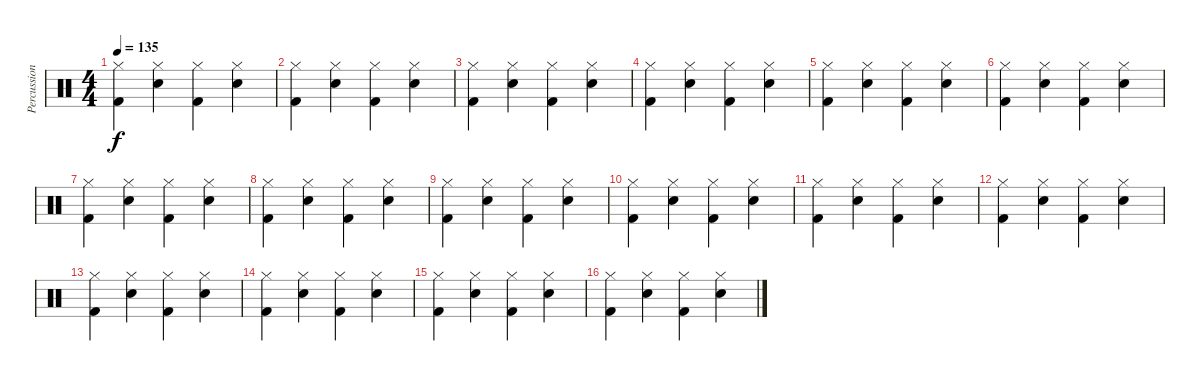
\track ("Percussion" "Percussion") {instrument percussion}
\staff {score}
\articulation defaults
\ts (4 4)
\tempo 135
\clef neutral
\ks c
("Hi-Hat (closed)" "Kick (hit) 2").4{dy f} ("Hi-Hat (closed)" "Electric Snare (hit)").4 ("Hi-Hat (closed)" "Kick (hit) 2").4 ("Hi-Hat (closed)" "Electric Snare (hit)").4 |
("Hi-Hat (closed)" "Kick (hit) 2").4 ("Hi-Hat (closed)" "Electric Snare (hit)").4 ("Hi-Hat (closed)" "Kick (hit) 2").4 ("Hi-Hat (closed)" "Electric Snare (hit)").4 |
("Hi-Hat (closed)" "Kick (hit) 2").4 ("Hi-Hat (closed)" "Electric Snare (hit)").4 ("Hi-Hat (closed)" "Kick (hit) 2").4 ("Hi-Hat (closed)" "Electric Snare (hit)").4 |
("Hi-Hat (closed)" "Kick (hit) 2").4 ("Hi-Hat (closed)" "Electric Snare (hit)").4 ("Hi-Hat (closed)" "Kick (hit) 2").4 ("Hi-Hat (closed)" "Electric Snare (hit)").4 |
("Hi-Hat (closed)" "Kick (hit) 2").4 ("Hi-Hat (closed)" "Electric Snare (hit)").4 ("Hi-Hat (closed)" "Kick (hit) 2").4 ("Hi-Hat (closed)" "Electric Snare (hit)").4 |
("Hi-Hat (closed)" "Kick (hit) 2").4 ("Hi-Hat (closed)" "Electric Snare (hit)").4 ("Hi-Hat (closed)" "Kick (hit) 2").4 ("Hi-Hat (closed)" "Electric Snare (hit)").4 |
("Hi-Hat (closed)" "Kick (hit) 2").4 ("Hi-Hat (closed)" "Electric Snare (hit)").4 ("Hi-Hat (closed)" "Kick (hit) 2").4 ("Hi-Hat (closed)" "Electric Snare (hit)").4 |
("Hi-Hat (closed)" "Kick (hit) 2").4 ("Hi-Hat (closed)" "Electric Snare (hit)").4 ("Hi-Hat (closed)" "Kick (hit) 2").4 ("Hi-Hat (closed)" "Electric Snare (hit)").4 |
("Hi-Hat (closed)" "Kick (hit) 2").4 ("Hi-Hat (closed)" "Electric Snare (hit)").4 ("Hi-Hat (closed)" "Kick (hit) 2").4 ("Hi-Hat (closed)" "Electric Snare (hit)").4 |
("Hi-Hat (closed)" "Kick (hit) 2").4 ("Hi-Hat (closed)" "Electric Snare (hit)").4 ("Hi-Hat (closed)" "Kick (hit) 2").4 ("Hi-Hat (closed)" "Electric Snare (hit)").4 |
("Hi-Hat (closed)" "Kick (hit) 2").4 ("Hi-Hat (closed)" "Electric Snare (hit)").4 ("Hi-Hat (closed)" "Kick (hit) 2").4 ("Hi-Hat (closed)" "Electric Snare (hit)").4 |
("Hi-Hat (closed)" "Kick (hit) 2").4 ("Hi-Hat (closed)" "Electric Snare (hit)").4 ("Hi-Hat (closed)" "Kick (hit) 2").4 ("Hi-Hat (closed)" "Electric Snare (hit)").4 |
("Hi-Hat (closed)" "Kick (hit) 2").4 ("Hi-Hat (closed)" "Electric Snare (hit)").4 ("Hi-Hat (closed)" "Kick (hit) 2").4 ("Hi-Hat (closed)" "Electric Snare (hit)").4 |
("Hi-Hat (closed)" "Kick (hit) 2").4 ("Hi-Hat (closed)" "Electric Snare (hit)").4 ("Hi-Hat (closed)" "Kick (hit) 2").4 ("Hi-Hat (closed)" "Electric Snare (hit)").4 |
("Hi-Hat (closed)" "Kick (hit) 2").4 ("Hi-Hat (closed)" "Electric Snare (hit)").4 ("Hi-Hat (closed)" "Kick (hit) 2").4 ("Hi-Hat (closed)" "Electric Snare (hit)").4 |
("Hi-Hat (closed)" "Kick (hit) 2").4 ("Hi-Hat (closed)" "Electric Snare (hit)").4 ("Hi-Hat (closed)" "Kick (hit) 2").4 ("Hi-Hat (closed)" "Electric Snare (hit)").4
